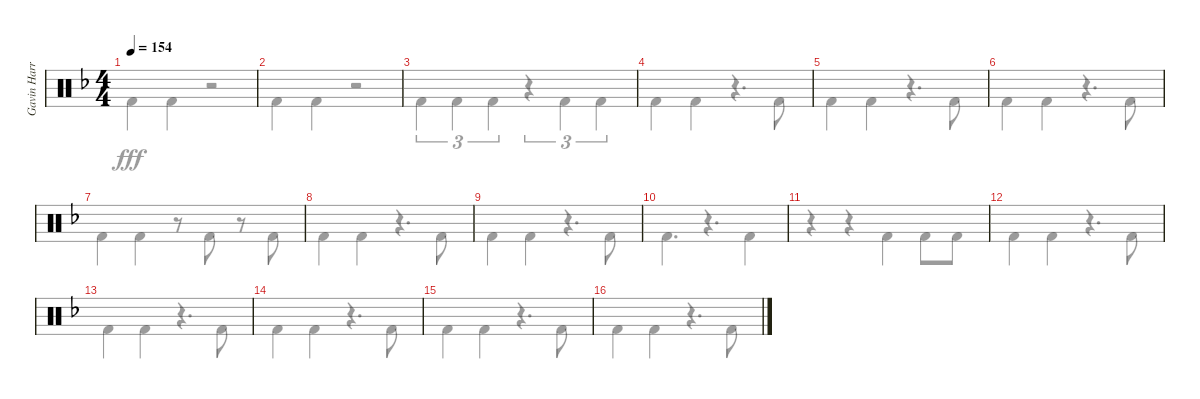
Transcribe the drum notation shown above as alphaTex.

\track ("Gavin Harrison Bass Pedal" "Gavin Harr") {instrument percussion}
\staff {score}
\articulation defaults
\voice
\ts (4 4)
\tempo 154
\clef neutral
\ks dminor
|
|
|
|
|
|
|
|
|
|
|
|
|
|
|
\voice
\clef neutral
\ks dminor "Kick (hit) 2".4{dy fff} "Kick (hit) 2".4
r.2 |
"Kick (hit) 2".4 "Kick (hit) 2".4 r.2 |
"Kick (hit) 2".4{tu (3 2)} "Kick (hit) 2".4{tu (3 2)} "Kick (hit) 2".4{tu (3 2)} r.4{tu (3 2)} "Kick (hit) 2".4{tu (3 2)} "Kick (hit) 2".4{tu (3 2)} |
"Kick (hit) 2".4 "Kick (hit) 2".4 r.4{d} "Kick (hit) 2".8 |
"Kick (hit) 2".4 "Kick (hit) 2".4 r.4{d} "Kick (hit) 2".8 |
"Kick (hit) 2".4 "Kick (hit) 2".4 r.4{d} "Kick (hit) 2".8 |
"Kick (hit) 2".4 "Kick (hit) 2".4 r.8 "Kick (hit) 2".8 r.8 "Kick (hit) 2".8 |
"Kick (hit) 2".4 "Kick (hit) 2".4 r.4{d} "Kick (hit) 2".8 |
"Kick (hit) 2".4 "Kick (hit) 2".4 r.4{d} "Kick (hit) 2".8 |
"Kick (hit) 2".4{d} r.4{d} "Kick (hit) 2".4 |
r.4 r.4 "Kick (hit) 2".4 "Kick (hit) 2".8 "Kick (hit) 2".8 |
"Kick (hit) 2".4 "Kick (hit) 2".4 r.4{d} "Kick (hit) 2".8 |
"Kick (hit) 2".4 "Kick (hit) 2".4 r.4{d} "Kick (hit) 2".8 |
"Kick (hit) 2".4 "Kick (hit) 2".4 r.4{d} "Kick (hit) 2".8 |
"Kick (hit) 2".4 "Kick (hit) 2".4 r.4{d} "Kick (hit) 2".8 |
"Kick (hit) 2".4 "Kick (hit) 2".4 r.4{d} "Kick (hit) 2".8
